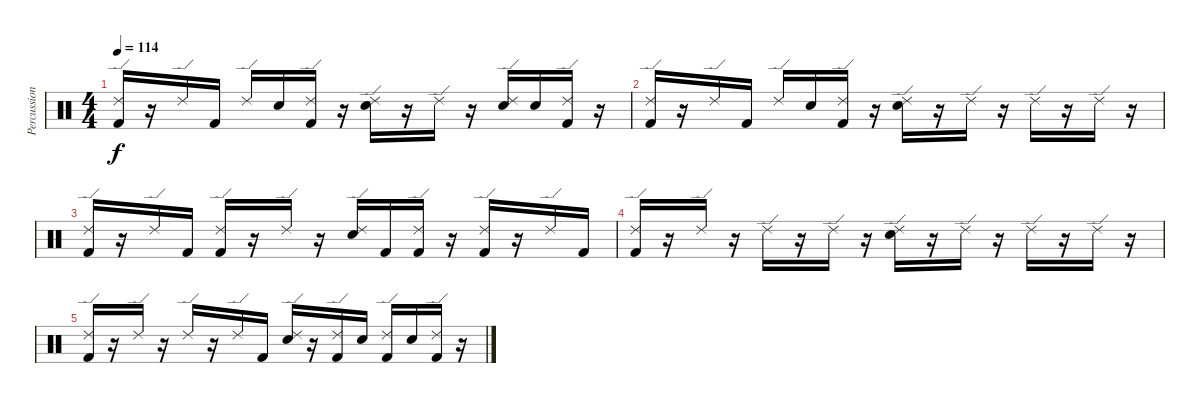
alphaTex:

\track ("Percussion" "Percussion") {instrument percussion}
\staff {score}
\articulation defaults
\ts (4 4)
\tempo 114
\clef neutral
\ks c
("Ride (edge) 2" "Kick (hit) 2").16{dy f} r.16 "Ride (edge) 2".16 "Kick (hit) 2".16 "Ride (edge) 2".16 "Electric Snare (hit)".16 ("Ride (edge) 2" "Kick (hit) 2").16 r.16 ("Ride (edge) 2" "Electric Snare (hit)").16 r.16 "Ride (edge) 2".16 r.16 ("Ride (edge) 2" "Electric Snare (hit)").16 "Electric Snare (hit)".16 ("Ride (edge) 2" "Kick (hit) 2").16 r.16 |
("Ride (edge) 2" "Kick (hit) 2").16 r.16 "Ride (edge) 2".16 "Kick (hit) 2".16 "Ride (edge) 2".16 "Electric Snare (hit)".16 ("Ride (edge) 2" "Kick (hit) 2").16 r.16 ("Ride (edge) 2" "Electric Snare (hit)").16 r.16 "Ride (edge) 2".16 r.16 "Ride (edge) 2".16 r.16 "Ride (edge) 2".16 r.16 |
("Ride (edge) 2" "Kick (hit) 2").16 r.16 "Ride (edge) 2".16 "Kick (hit) 2".16 ("Ride (edge) 2" "Kick (hit) 2").16 r.16 "Ride (edge) 2".16 r.16 ("Ride (edge) 2" "Electric Snare (hit)").16 "Kick (hit) 2".16 ("Ride (edge) 2" "Kick (hit) 2").16 r.16 ("Ride (edge) 2" "Kick (hit) 2").16 r.16 "Ride (edge) 2".16 "Kick (hit) 2".16 |
("Ride (edge) 2" "Kick (hit) 2").16 r.16 "Ride (edge) 2".16 r.16 "Ride (edge) 2".16 r.16 "Ride (edge) 2".16 r.16 ("Ride (edge) 2" "Electric Snare (hit)").16 r.16 "Ride (edge) 2".16 r.16 "Ride (edge) 2".16 r.16 "Ride (edge) 2".16 r.16 |
("Ride (edge) 2" "Kick (hit) 2").16 r.16 "Ride (edge) 2".16 r.16 "Ride (edge) 2".16 r.16 "Ride (edge) 2".16 "Kick (hit) 2".16 ("Ride (edge) 2" "Electric Snare (hit)").16 r.16 ("Ride (edge) 2" "Kick (hit) 2").16 "Electric Snare (hit)".16 ("Ride (edge) 2" "Kick (hit) 2").16 "Electric Snare (hit)".16 ("Ride (edge) 2" "Kick (hit) 2").16 r.16
